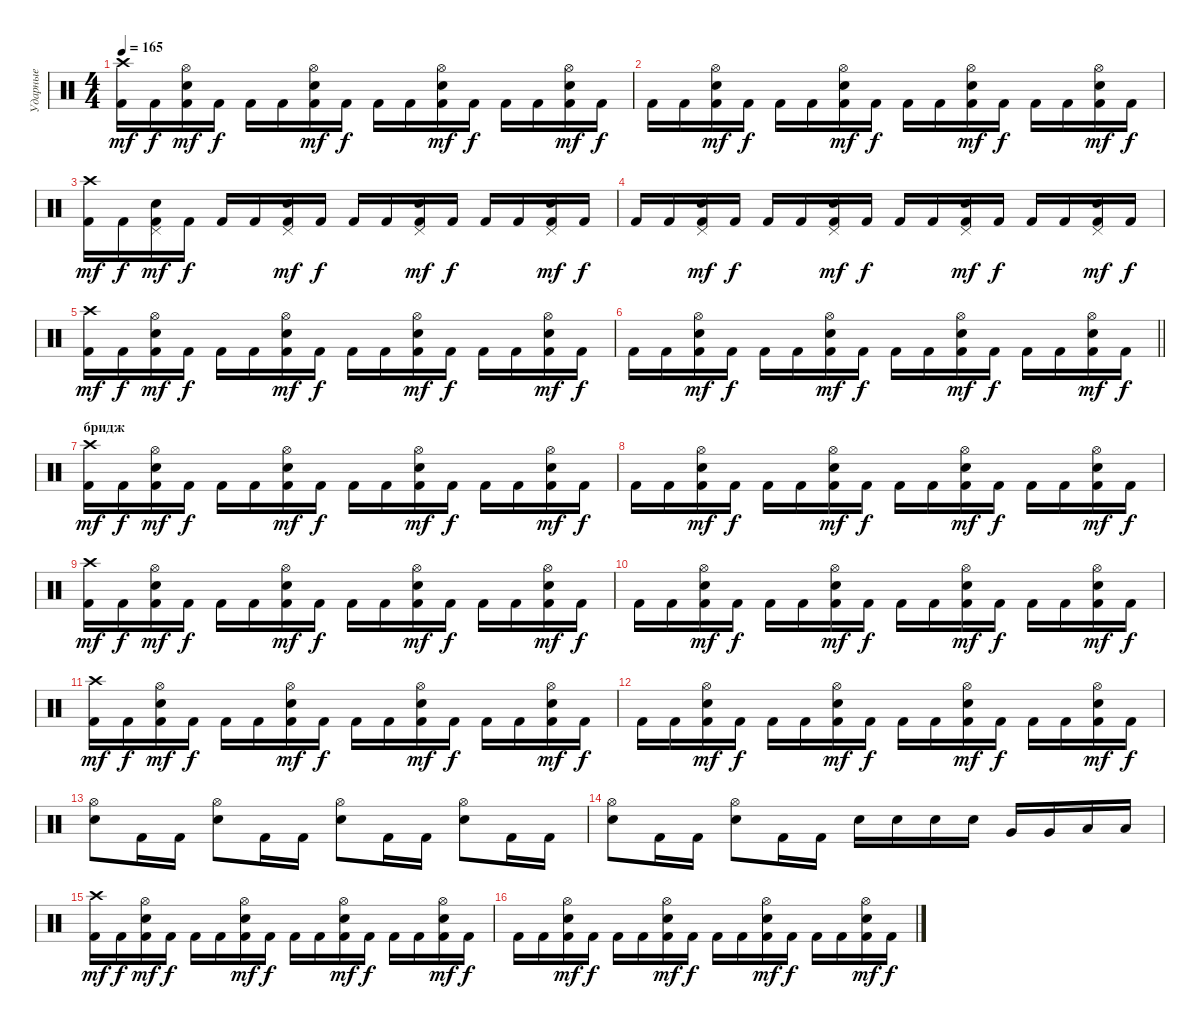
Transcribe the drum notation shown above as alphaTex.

\track ("Ударные" "Ударные") {instrument percussion}
\staff {score}
\articulation defaults
\ts (4 4)
\tempo 165
\clef neutral
\ks c
("Kick (hit) 2" "Crash high (hit)").16{dy mf} "Kick (hit) 2".16{dy f} ("Kick (hit) 2" "Electric Snare (hit)" "Hi-Hat (open)").16{dy mf} "Kick (hit) 2".16{dy f} "Kick (hit) 2".16 "Kick (hit) 2".16 ("Kick (hit) 2" "Electric Snare (hit)" "Hi-Hat (open)").16{dy mf} "Kick (hit) 2".16{dy f} "Kick (hit) 2".16 "Kick (hit) 2".16 ("Kick (hit) 2" "Electric Snare (hit)" "Hi-Hat (open)").16{dy mf} "Kick (hit) 2".16{dy f} "Kick (hit) 2".16 "Kick (hit) 2".16 ("Kick (hit) 2" "Electric Snare (hit)" "Hi-Hat (open)").16{dy mf} "Kick (hit) 2".16{dy f} |
"Kick (hit) 2".16 "Kick (hit) 2".16 ("Kick (hit) 2" "Electric Snare (hit)" "Hi-Hat (open)").16{dy mf} "Kick (hit) 2".16{dy f} "Kick (hit) 2".16 "Kick (hit) 2".16 ("Kick (hit) 2" "Electric Snare (hit)" "Hi-Hat (open)").16{dy mf} "Kick (hit) 2".16{dy f} "Kick (hit) 2".16 "Kick (hit) 2".16 ("Kick (hit) 2" "Electric Snare (hit)" "Hi-Hat (open)").16{dy mf} "Kick (hit) 2".16{dy f} "Kick (hit) 2".16 "Kick (hit) 2".16 ("Kick (hit) 2" "Electric Snare (hit)" "Hi-Hat (open)").16{dy mf} "Kick (hit) 2".16{dy f} |
("Kick (hit) 2" "Crash high (hit)").16{dy mf} "Kick (hit) 2".16{dy f} ("Kick (hit) 2" "Electric Snare (hit)" "Pedal Hi-Hat (hit)").16{dy mf} "Kick (hit) 2".16{dy f} "Kick (hit) 2".16 "Kick (hit) 2".16 ("Kick (hit) 2" "Electric Snare (hit)" "Pedal Hi-Hat (hit)").16{dy mf} "Kick (hit) 2".16{dy f} "Kick (hit) 2".16 "Kick (hit) 2".16 ("Kick (hit) 2" "Electric Snare (hit)" "Pedal Hi-Hat (hit)").16{dy mf} "Kick (hit) 2".16{dy f} "Kick (hit) 2".16 "Kick (hit) 2".16 ("Kick (hit) 2" "Electric Snare (hit)" "Pedal Hi-Hat (hit)").16{dy mf} "Kick (hit) 2".16{dy f} |
"Kick (hit) 2".16 "Kick (hit) 2".16 ("Kick (hit) 2" "Electric Snare (hit)" "Pedal Hi-Hat (hit)").16{dy mf} "Kick (hit) 2".16{dy f} "Kick (hit) 2".16 "Kick (hit) 2".16 ("Kick (hit) 2" "Electric Snare (hit)" "Pedal Hi-Hat (hit)").16{dy mf} "Kick (hit) 2".16{dy f} "Kick (hit) 2".16 "Kick (hit) 2".16 ("Kick (hit) 2" "Electric Snare (hit)" "Pedal Hi-Hat (hit)").16{dy mf} "Kick (hit) 2".16{dy f} "Kick (hit) 2".16 "Kick (hit) 2".16 ("Kick (hit) 2" "Electric Snare (hit)" "Pedal Hi-Hat (hit)").16{dy mf} "Kick (hit) 2".16{dy f} |
("Kick (hit) 2" "Crash high (hit)").16{dy mf} "Kick (hit) 2".16{dy f} ("Kick (hit) 2" "Electric Snare (hit)" "Hi-Hat (open)").16{dy mf} "Kick (hit) 2".16{dy f} "Kick (hit) 2".16 "Kick (hit) 2".16 ("Kick (hit) 2" "Electric Snare (hit)" "Hi-Hat (open)").16{dy mf} "Kick (hit) 2".16{dy f} "Kick (hit) 2".16 "Kick (hit) 2".16 ("Kick (hit) 2" "Electric Snare (hit)" "Hi-Hat (open)").16{dy mf} "Kick (hit) 2".16{dy f} "Kick (hit) 2".16 "Kick (hit) 2".16 ("Kick (hit) 2" "Electric Snare (hit)" "Hi-Hat (open)").16{dy mf} "Kick (hit) 2".16{dy f} |
\barLineRight lightlight "Kick (hit) 2".16 "Kick (hit) 2".16
("Kick (hit) 2" "Electric Snare (hit)" "Hi-Hat (open)").16{dy mf} "Kick (hit) 2".16{dy f} "Kick (hit) 2".16 "Kick (hit) 2".16 ("Kick (hit) 2" "Electric Snare (hit)" "Hi-Hat (open)").16{dy mf} "Kick (hit) 2".16{dy f} "Kick (hit) 2".16 "Kick (hit) 2".16 ("Kick (hit) 2" "Electric Snare (hit)" "Hi-Hat (open)").16{dy mf} "Kick (hit) 2".16{dy f} "Kick (hit) 2".16 "Kick (hit) 2".16 ("Kick (hit) 2" "Electric Snare (hit)" "Hi-Hat (open)").16{dy mf} "Kick (hit) 2".16{dy f} |
\section ("" "бридж")
("Kick (hit) 2" "Crash high (hit)").16{dy mf} "Kick (hit) 2".16{dy f} ("Kick (hit) 2" "Electric Snare (hit)" "Hi-Hat (open)").16{dy mf} "Kick (hit) 2".16{dy f} "Kick (hit) 2".16 "Kick (hit) 2".16 ("Kick (hit) 2" "Electric Snare (hit)" "Hi-Hat (open)").16{dy mf} "Kick (hit) 2".16{dy f} "Kick (hit) 2".16 "Kick (hit) 2".16 ("Kick (hit) 2" "Electric Snare (hit)" "Hi-Hat (open)").16{dy mf} "Kick (hit) 2".16{dy f} "Kick (hit) 2".16 "Kick (hit) 2".16 ("Kick (hit) 2" "Electric Snare (hit)" "Hi-Hat (open)").16{dy mf} "Kick (hit) 2".16{dy f} |
"Kick (hit) 2".16 "Kick (hit) 2".16 ("Kick (hit) 2" "Electric Snare (hit)" "Hi-Hat (open)").16{dy mf} "Kick (hit) 2".16{dy f} "Kick (hit) 2".16 "Kick (hit) 2".16 ("Kick (hit) 2" "Electric Snare (hit)" "Hi-Hat (open)").16{dy mf} "Kick (hit) 2".16{dy f} "Kick (hit) 2".16 "Kick (hit) 2".16 ("Kick (hit) 2" "Electric Snare (hit)" "Hi-Hat (open)").16{dy mf} "Kick (hit) 2".16{dy f} "Kick (hit) 2".16 "Kick (hit) 2".16 ("Kick (hit) 2" "Electric Snare (hit)" "Hi-Hat (open)").16{dy mf} "Kick (hit) 2".16{dy f} |
("Kick (hit) 2" "Crash high (hit)").16{dy mf} "Kick (hit) 2".16{dy f} ("Kick (hit) 2" "Electric Snare (hit)" "Hi-Hat (open)").16{dy mf} "Kick (hit) 2".16{dy f} "Kick (hit) 2".16 "Kick (hit) 2".16 ("Kick (hit) 2" "Electric Snare (hit)" "Hi-Hat (open)").16{dy mf} "Kick (hit) 2".16{dy f} "Kick (hit) 2".16 "Kick (hit) 2".16 ("Kick (hit) 2" "Electric Snare (hit)" "Hi-Hat (open)").16{dy mf} "Kick (hit) 2".16{dy f} "Kick (hit) 2".16 "Kick (hit) 2".16 ("Kick (hit) 2" "Electric Snare (hit)" "Hi-Hat (open)").16{dy mf} "Kick (hit) 2".16{dy f} |
"Kick (hit) 2".16 "Kick (hit) 2".16 ("Kick (hit) 2" "Electric Snare (hit)" "Hi-Hat (open)").16{dy mf} "Kick (hit) 2".16{dy f} "Kick (hit) 2".16 "Kick (hit) 2".16 ("Kick (hit) 2" "Electric Snare (hit)" "Hi-Hat (open)").16{dy mf} "Kick (hit) 2".16{dy f} "Kick (hit) 2".16 "Kick (hit) 2".16 ("Kick (hit) 2" "Electric Snare (hit)" "Hi-Hat (open)").16{dy mf} "Kick (hit) 2".16{dy f} "Kick (hit) 2".16 "Kick (hit) 2".16 ("Kick (hit) 2" "Electric Snare (hit)" "Hi-Hat (open)").16{dy mf} "Kick (hit) 2".16{dy f} |
("Kick (hit) 2" "Crash high (hit)").16{dy mf} "Kick (hit) 2".16{dy f} ("Kick (hit) 2" "Electric Snare (hit)" "Hi-Hat (open)").16{dy mf} "Kick (hit) 2".16{dy f} "Kick (hit) 2".16 "Kick (hit) 2".16 ("Kick (hit) 2" "Electric Snare (hit)" "Hi-Hat (open)").16{dy mf} "Kick (hit) 2".16{dy f} "Kick (hit) 2".16 "Kick (hit) 2".16 ("Kick (hit) 2" "Electric Snare (hit)" "Hi-Hat (open)").16{dy mf} "Kick (hit) 2".16{dy f} "Kick (hit) 2".16 "Kick (hit) 2".16 ("Kick (hit) 2" "Electric Snare (hit)" "Hi-Hat (open)").16{dy mf} "Kick (hit) 2".16{dy f} |
"Kick (hit) 2".16 "Kick (hit) 2".16 ("Kick (hit) 2" "Electric Snare (hit)" "Hi-Hat (open)").16{dy mf} "Kick (hit) 2".16{dy f} "Kick (hit) 2".16 "Kick (hit) 2".16 ("Kick (hit) 2" "Electric Snare (hit)" "Hi-Hat (open)").16{dy mf} "Kick (hit) 2".16{dy f} "Kick (hit) 2".16 "Kick (hit) 2".16 ("Kick (hit) 2" "Electric Snare (hit)" "Hi-Hat (open)").16{dy mf} "Kick (hit) 2".16{dy f} "Kick (hit) 2".16 "Kick (hit) 2".16 ("Kick (hit) 2" "Electric Snare (hit)" "Hi-Hat (open)").16{dy mf} "Kick (hit) 2".16{dy f} |
("Electric Snare (hit)" "Hi-Hat (open)").8 "Kick (hit) 2".16 "Kick (hit) 2".16 ("Electric Snare (hit)" "Hi-Hat (open)").8 "Kick (hit) 2".16 "Kick (hit) 2".16 ("Electric Snare (hit)" "Hi-Hat (open)").8 "Kick (hit) 2".16 "Kick (hit) 2".16 ("Electric Snare (hit)" "Hi-Hat (open)").8 "Kick (hit) 2".16 "Kick (hit) 2".16 |
("Electric Snare (hit)" "Hi-Hat (open)").8 "Kick (hit) 2".16 "Kick (hit) 2".16 ("Electric Snare (hit)" "Hi-Hat (open)").8 "Kick (hit) 2".16 "Kick (hit) 2".16 "Electric Snare (hit)".16 "Electric Snare (hit)".16 "Electric Snare (hit)".16 "Electric Snare (hit)".16 "Very Low Tom (hit)".16 "Very Low Tom (hit)".16 "Low Floor Tom (hit)".16 "Low Floor Tom (hit)".16 |
("Kick (hit) 2" "Crash high (hit)").16{dy mf} "Kick (hit) 2".16{dy f} ("Kick (hit) 2" "Electric Snare (hit)" "Hi-Hat (open)").16{dy mf} "Kick (hit) 2".16{dy f} "Kick (hit) 2".16 "Kick (hit) 2".16 ("Kick (hit) 2" "Electric Snare (hit)" "Hi-Hat (open)").16{dy mf} "Kick (hit) 2".16{dy f} "Kick (hit) 2".16 "Kick (hit) 2".16 ("Kick (hit) 2" "Electric Snare (hit)" "Hi-Hat (open)").16{dy mf} "Kick (hit) 2".16{dy f} "Kick (hit) 2".16 "Kick (hit) 2".16 ("Kick (hit) 2" "Electric Snare (hit)" "Hi-Hat (open)").16{dy mf} "Kick (hit) 2".16{dy f} |
"Kick (hit) 2".16 "Kick (hit) 2".16 ("Kick (hit) 2" "Electric Snare (hit)" "Hi-Hat (open)").16{dy mf} "Kick (hit) 2".16{dy f} "Kick (hit) 2".16 "Kick (hit) 2".16 ("Kick (hit) 2" "Electric Snare (hit)" "Hi-Hat (open)").16{dy mf} "Kick (hit) 2".16{dy f} "Kick (hit) 2".16 "Kick (hit) 2".16 ("Kick (hit) 2" "Electric Snare (hit)" "Hi-Hat (open)").16{dy mf} "Kick (hit) 2".16{dy f} "Kick (hit) 2".16 "Kick (hit) 2".16 ("Kick (hit) 2" "Electric Snare (hit)" "Hi-Hat (open)").16{dy mf} "Kick (hit) 2".16{dy f}
